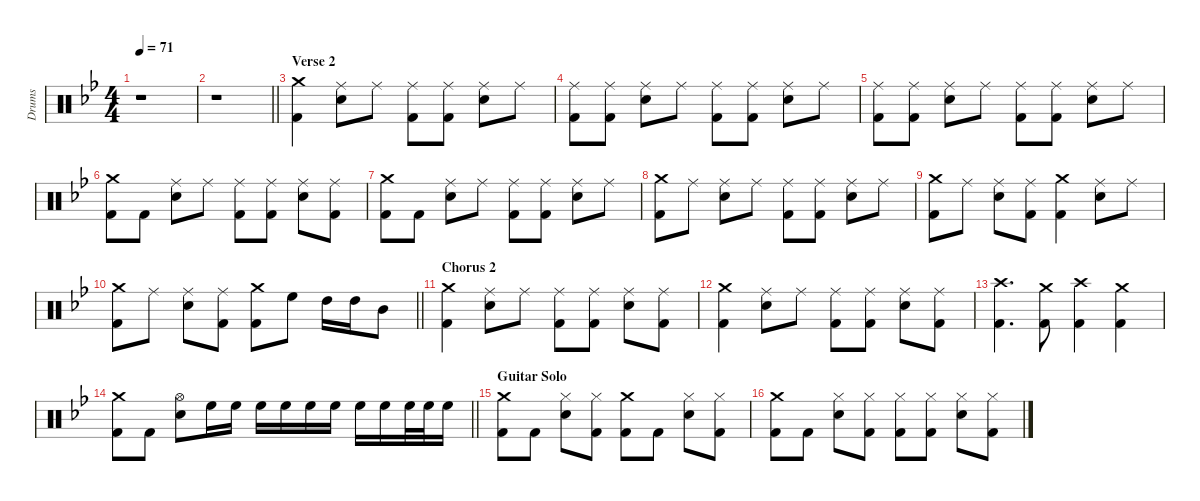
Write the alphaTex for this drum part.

\defaultSystemsLayout 8
\hideDynamics
\bracketExtendMode nobrackets
\otherSystemsTrackNameOrientation horizontal
\track ("Drumkit" "Drums") {defaultSystemsLayout 4 instrument percussion}
\staff {score}
\articulation defaults
\ts (4 4)
\tempo 71
\clef neutral
\ks gminor
r.1{dy f beam Down} |
\barLineRight lightlight
r.1{beam Down} |
\section ("" "Verse 2")
("Crash medium (hit)"{acc forcenatural} "Kick (hit) 2"{acc forcenatural}).4{beam Down} ("Ride (middle)"{acc forcenatural} "Snare (hit) 2"{acc forcenatural}).8{beam Down} "Ride (middle)"{acc forcenatural}.8{beam Down} ("Ride (middle)"{acc forcenatural} "Kick (hit) 2"{acc forcenatural}).8{beam Down} ("Ride (middle)"{acc forcenatural} "Kick (hit) 2"{acc forcenatural}).8{beam Down} ("Ride (middle)"{acc forcenatural} "Snare (hit) 2"{acc forcenatural}).8{beam Down} "Ride (middle)"{acc forcenatural}.8{beam Down} |
("Ride (middle)"{acc forcenatural} "Kick (hit) 2"{acc forcenatural}).8{beam Down} ("Ride (middle)"{acc forcenatural} "Kick (hit) 2"{acc forcenatural}).8{beam Down} ("Ride (middle)"{acc forcenatural} "Snare (hit) 2"{acc forcenatural}).8{beam Down} "Ride (middle)"{acc forcenatural}.8{beam Down} ("Ride (middle)"{acc forcenatural} "Kick (hit) 2"{acc forcenatural}).8{beam Down} ("Ride (middle)"{acc forcenatural} "Kick (hit) 2"{acc forcenatural}).8{beam Down} ("Ride (middle)"{acc forcenatural} "Snare (hit) 2"{acc forcenatural}).8{beam Down} "Ride (middle)"{acc forcenatural}.8{beam Down} |
("Ride (middle)"{acc forcenatural} "Kick (hit) 2"{acc forcenatural}).8{beam Down} ("Ride (middle)"{acc forcenatural} "Kick (hit) 2"{acc forcenatural}).8{beam Down} ("Ride (middle)"{acc forcenatural} "Snare (hit) 2"{acc forcenatural}).8{beam Down} "Ride (middle)"{acc forcenatural}.8{beam Down} ("Ride (middle)"{acc forcenatural} "Kick (hit) 2"{acc forcenatural}).8{beam Down} ("Ride (middle)"{acc forcenatural} "Kick (hit) 2"{acc forcenatural}).8{beam Down} ("Ride (middle)"{acc forcenatural} "Snare (hit) 2"{acc forcenatural}).8{beam Down} "Ride (middle)"{acc forcenatural}.8{beam Down} |
("Crash medium (hit)"{acc forcenatural} "Kick (hit) 2"{acc forcenatural}).8{beam Down} "Kick (hit) 2"{acc forcenatural}.8{beam Down} ("Ride (middle)"{acc forcenatural} "Snare (hit) 2"{acc forcenatural}).8{beam Down} "Ride (middle)"{acc forcenatural}.8{beam Down} ("Ride (middle)"{acc forcenatural} "Kick (hit) 2"{acc forcenatural}).8{beam Down} ("Ride (middle)"{acc forcenatural} "Kick (hit) 2"{acc forcenatural}).8{beam Down} ("Ride (middle)"{acc forcenatural} "Snare (hit) 2"{acc forcenatural}).8{beam Down} ("Ride (middle)"{acc forcenatural} "Kick (hit) 2"{acc forcenatural}).8{beam Down} |
("Crash medium (hit)"{acc forcenatural} "Kick (hit) 2"{acc forcenatural}).8{beam Down} "Kick (hit) 2"{acc forcenatural}.8{beam Down} ("Ride (middle)"{acc forcenatural} "Snare (hit) 2"{acc forcenatural}).8{beam Down} "Ride (middle)"{acc forcenatural}.8{beam Down} ("Ride (middle)"{acc forcenatural} "Kick (hit) 2"{acc forcenatural}).8{beam Down} ("Ride (middle)"{acc forcenatural} "Kick (hit) 2"{acc forcenatural}).8{beam Down} ("Ride (middle)"{acc forcenatural} "Snare (hit) 2"{acc forcenatural}).8{beam Down} "Ride (middle)"{acc forcenatural}.8{beam Down} |
("Crash medium (hit)"{acc forcenatural} "Kick (hit) 2"{acc forcenatural}).8{beam Down} "Ride (middle)"{acc forcenatural}.8{beam Down} ("Ride (middle)"{acc forcenatural} "Snare (hit) 2"{acc forcenatural}).8{beam Down} "Ride (middle)"{acc forcenatural}.8{beam Down} ("Ride (middle)"{acc forcenatural} "Kick (hit) 2"{acc forcenatural}).8{beam Down} ("Ride (middle)"{acc forcenatural} "Kick (hit) 2"{acc forcenatural}).8{beam Down} ("Ride (middle)"{acc forcenatural} "Snare (hit) 2"{acc forcenatural}).8{beam Down} "Ride (middle)"{acc forcenatural}.8{beam Down} |
("Crash medium (hit)"{acc forcenatural} "Kick (hit) 2"{acc forcenatural}).8{beam Down} "Ride (middle)"{acc forcenatural}.8{beam Down} ("Ride (middle)"{acc forcenatural} "Snare (hit) 2"{acc forcenatural}).8{beam Down} ("Ride (middle)"{acc forcenatural} "Kick (hit) 2"{acc forcenatural}).8{beam Down} ("Crash medium (hit)"{acc forcenatural} "Kick (hit) 2"{acc forcenatural}).4{beam Down} ("Ride (middle)"{acc forcenatural} "Snare (hit) 2"{acc forcenatural}).8{beam Down} "Ride (middle)"{acc forcenatural}.8{beam Down} |
\barLineRight lightlight
("Crash medium (hit)"{acc forcenatural} "Kick (hit) 2"{acc forcenatural}).8{beam Down} "Ride (middle)"{acc forcenatural}.8{beam Down} ("Ride (middle)"{acc forcenatural} "Snare (hit) 2"{acc forcenatural}).8{beam Down} ("Ride (middle)"{acc forcenatural} "Kick (hit) 2"{acc forcenatural}).8{beam Down} ("Crash medium (hit)"{acc forcenatural} "Kick (hit) 2"{acc forcenatural}).8{beam Down} "High Floor Tom (hit)"{acc forcenatural}.8{beam Down} "High Tom (hit)"{acc forcenatural}.16{beam Down} "High Tom (hit)"{acc forcenatural}.16{beam Down} "Mid Tom (hit)"{acc forcenatural}.8{beam Down} |
\section ("" "Chorus 2")
("Crash medium (hit)"{acc forcenatural} "Kick (hit) 2"{acc forcenatural}).4{beam Down} ("Ride (middle)"{acc forcenatural} "Snare (hit) 2"{acc forcenatural}).8{beam Down} "Ride (middle)"{acc forcenatural}.8{beam Down} ("Ride (middle)"{acc forcenatural} "Kick (hit) 2"{acc forcenatural}).8{beam Down} ("Ride (middle)"{acc forcenatural} "Kick (hit) 2"{acc forcenatural}).8{beam Down} ("Ride (middle)"{acc forcenatural} "Snare (hit) 2"{acc forcenatural}).8{beam Down} ("Ride (middle)"{acc forcenatural} "Kick (hit) 2"{acc forcenatural}).8{beam Down} |
("Crash medium (hit)"{acc forcenatural} "Kick (hit) 2"{acc forcenatural}).4{beam Down} ("Ride (middle)"{acc forcenatural} "Snare (hit) 2"{acc forcenatural}).8{beam Down} "Ride (middle)"{acc forcenatural}.8{beam Down} ("Ride (middle)"{acc forcenatural} "Kick (hit) 2"{acc forcenatural}).8{beam Down} ("Ride (middle)"{acc forcenatural} "Kick (hit) 2"{acc forcenatural}).8{beam Down} ("Ride (middle)"{acc forcenatural} "Snare (hit) 2"{acc forcenatural}).8{beam Down} ("Ride (middle)"{acc forcenatural} "Kick (hit) 2"{acc forcenatural}).8{beam Down} |
("Crash high (hit)"{acc forcenatural} "Kick (hit) 2"{acc forcenatural}).4{d beam Down} ("Crash medium (hit)"{acc forcenatural} "Kick (hit) 2"{acc forcenatural}).8{beam Down} ("Crash high (hit)"{acc forcenatural} "Kick (hit) 2"{acc forcenatural}).4{beam Down} ("Crash medium (hit)"{acc forcenatural} "Kick (hit) 2"{acc forcenatural}).4{beam Down} |
\barLineRight lightlight
("Crash medium (hit)"{acc forcenatural} "Kick (hit) 2"{acc forcenatural}).8{beam Down} "Kick (hit) 2"{acc forcenatural}.8{beam Down} ("Hi-Hat (open)"{acc forcenatural} "Snare (hit) 2"{acc forcenatural}).8{beam Down} "High Floor Tom (hit)"{acc forcenatural}.16{beam Down} "High Floor Tom (hit)"{acc forcenatural}.16{beam Down} "High Floor Tom (hit)"{acc forcenatural}.16{beam Down} "High Floor Tom (hit)"{acc forcenatural}.16{beam Down} "High Floor Tom (hit)"{acc forcenatural}.16{beam Down} "High Floor Tom (hit)"{acc forcenatural}.16{beam Down} "High Floor Tom (hit)"{acc forcenatural}.16{beam Down} "High Floor Tom (hit)"{acc forcenatural}.16{beam Down} "High Floor Tom (hit)"{acc forcenatural}.32{beam Down} "High Floor Tom (hit)"{acc forcenatural}.32{beam Down} "High Floor Tom (hit)"{acc forcenatural}.16{beam Down} |
\section ("" "Guitar Solo")
("Crash medium (hit)"{acc forcenatural} "Kick (hit) 2"{acc forcenatural}).8{beam Down} "Kick (hit) 2"{acc forcenatural}.8{beam Down} ("Hi-Hat (closed)"{acc forcenatural} "Snare (hit) 2"{acc forcenatural}).8{beam Down} ("Hi-Hat (closed)"{acc forcenatural} "Kick (hit) 2"{acc forcenatural}).8{beam Down} ("Crash medium (hit)"{acc forcenatural} "Kick (hit) 2"{acc forcenatural}).8{beam Down} "Kick (hit) 2"{acc forcenatural}.8{beam Down} ("Hi-Hat (closed)"{acc forcenatural} "Snare (hit) 2"{acc forcenatural}).8{beam Down} ("Hi-Hat (closed)"{acc forcenatural} "Kick (hit) 2"{acc forcenatural}).8{beam Down} |
("Crash medium (hit)"{acc forcenatural} "Kick (hit) 2"{acc forcenatural}).8{beam Down} "Kick (hit) 2"{acc forcenatural}.8{beam Down} ("Hi-Hat (closed)"{acc forcenatural} "Snare (hit) 2"{acc forcenatural}).8{beam Down} ("Hi-Hat (closed)"{acc forcenatural} "Kick (hit) 2"{acc forcenatural}).8{beam Down} ("Hi-Hat (closed)"{acc forcenatural} "Kick (hit) 2"{acc forcenatural}).8{beam Down} ("Hi-Hat (closed)"{acc forcenatural} "Kick (hit) 2"{acc forcenatural}).8{beam Down} ("Hi-Hat (closed)"{acc forcenatural} "Snare (hit) 2"{acc forcenatural}).8{beam Down} ("Hi-Hat (closed)"{acc forcenatural} "Kick (hit) 2"{acc forcenatural}).8{beam Down}
